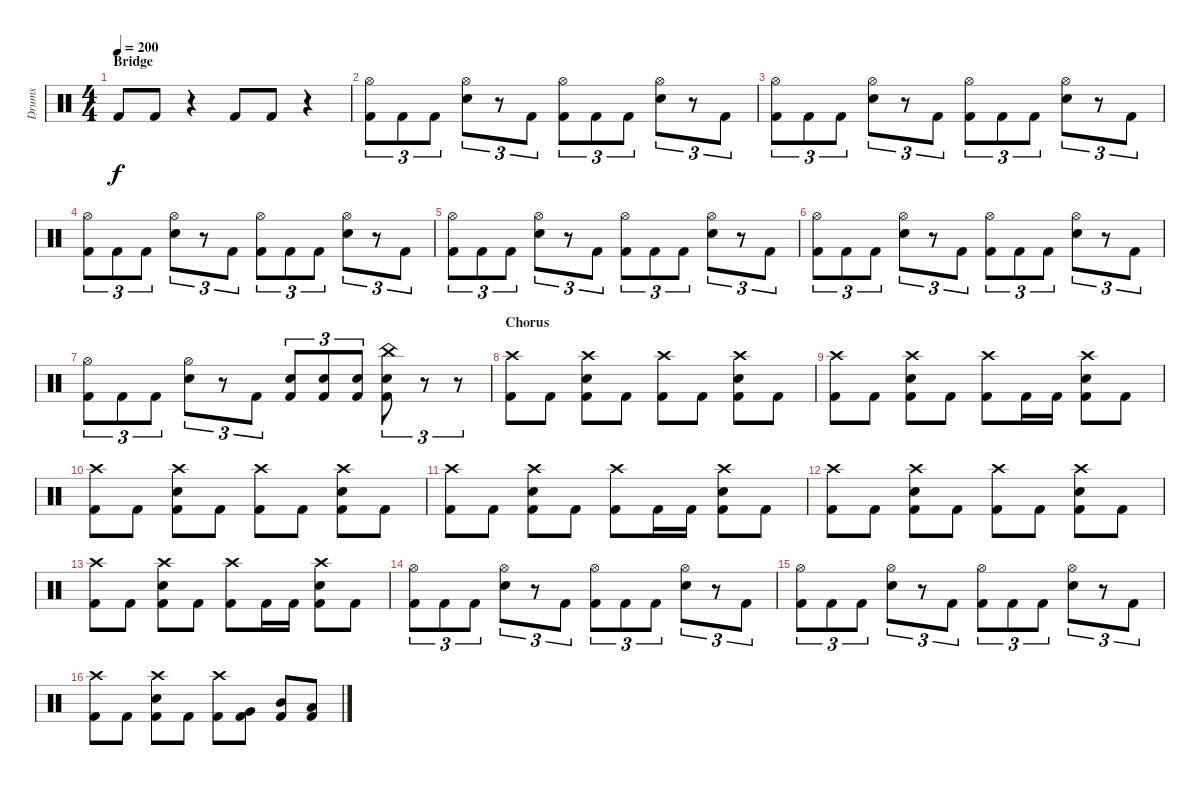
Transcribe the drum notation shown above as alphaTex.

\track ("Drums" "Drums") {instrument percussion}
\staff {score}
\articulation defaults
\ts (4 4)
\section ("" "Bridge")
\tempo 200
\clef neutral
\ks c "Kick (hit) 2".8{dy f} "Kick (hit) 2".8
r.4 "Kick (hit) 2".8 "Kick (hit) 2".8 r.4 |
("Hi-Hat (open)" "Kick (hit) 2").8{tu (3 2)} "Kick (hit) 2".8{tu (3 2)} "Kick (hit) 2".8{tu (3 2)} ("Hi-Hat (open)" "Electric Snare (hit)").8{tu (3 2)} r.8{tu (3 2)} "Kick (hit) 2".8{tu (3 2)} ("Hi-Hat (open)" "Kick (hit) 2").8{tu (3 2)} "Kick (hit) 2".8{tu (3 2)} "Kick (hit) 2".8{tu (3 2)} ("Hi-Hat (open)" "Electric Snare (hit)").8{tu (3 2)} r.8{tu (3 2)} "Kick (hit) 2".8{tu (3 2)} |
("Hi-Hat (open)" "Kick (hit) 2").8{tu (3 2)} "Kick (hit) 2".8{tu (3 2)} "Kick (hit) 2".8{tu (3 2)} ("Hi-Hat (open)" "Electric Snare (hit)").8{tu (3 2)} r.8{tu (3 2)} "Kick (hit) 2".8{tu (3 2)} ("Hi-Hat (open)" "Kick (hit) 2").8{tu (3 2)} "Kick (hit) 2".8{tu (3 2)} "Kick (hit) 2".8{tu (3 2)} ("Hi-Hat (open)" "Electric Snare (hit)").8{tu (3 2)} r.8{tu (3 2)} "Kick (hit) 2".8{tu (3 2)} |
("Hi-Hat (open)" "Kick (hit) 2").8{tu (3 2)} "Kick (hit) 2".8{tu (3 2)} "Kick (hit) 2".8{tu (3 2)} ("Hi-Hat (open)" "Electric Snare (hit)").8{tu (3 2)} r.8{tu (3 2)} "Kick (hit) 2".8{tu (3 2)} ("Hi-Hat (open)" "Kick (hit) 2").8{tu (3 2)} "Kick (hit) 2".8{tu (3 2)} "Kick (hit) 2".8{tu (3 2)} ("Hi-Hat (open)" "Electric Snare (hit)").8{tu (3 2)} r.8{tu (3 2)} "Kick (hit) 2".8{tu (3 2)} |
("Hi-Hat (open)" "Kick (hit) 2").8{tu (3 2)} "Kick (hit) 2".8{tu (3 2)} "Kick (hit) 2".8{tu (3 2)} ("Hi-Hat (open)" "Electric Snare (hit)").8{tu (3 2)} r.8{tu (3 2)} "Kick (hit) 2".8{tu (3 2)} ("Hi-Hat (open)" "Kick (hit) 2").8{tu (3 2)} "Kick (hit) 2".8{tu (3 2)} "Kick (hit) 2".8{tu (3 2)} ("Hi-Hat (open)" "Electric Snare (hit)").8{tu (3 2)} r.8{tu (3 2)} "Kick (hit) 2".8{tu (3 2)} |
("Hi-Hat (open)" "Kick (hit) 2").8{tu (3 2)} "Kick (hit) 2".8{tu (3 2)} "Kick (hit) 2".8{tu (3 2)} ("Hi-Hat (open)" "Electric Snare (hit)").8{tu (3 2)} r.8{tu (3 2)} "Kick (hit) 2".8{tu (3 2)} ("Hi-Hat (open)" "Kick (hit) 2").8{tu (3 2)} "Kick (hit) 2".8{tu (3 2)} "Kick (hit) 2".8{tu (3 2)} ("Hi-Hat (open)" "Electric Snare (hit)").8{tu (3 2)} r.8{tu (3 2)} "Kick (hit) 2".8{tu (3 2)} |
("Hi-Hat (open)" "Kick (hit) 2").8{tu (3 2)} "Kick (hit) 2".8{tu (3 2)} "Kick (hit) 2".8{tu (3 2)} ("Hi-Hat (open)" "Electric Snare (hit)").8{tu (3 2)} r.8{tu (3 2)} "Kick (hit) 2".8{tu (3 2)} ("Electric Snare (hit)" "Kick (hit) 2").8{tu (3 2)} ("Electric Snare (hit)" "Kick (hit) 2").8{tu (3 2)} ("Electric Snare (hit)" "Kick (hit) 2").8{tu (3 2)} ("China (hit)" "Electric Snare (hit)" "Kick (hit) 2").8{tu (3 2)} r.8{tu (3 2)} r.8{tu (3 2)} |
\section ("" "Chorus")
("Crash high (hit)" "Kick (hit) 2").8 "Kick (hit) 2".8 ("Crash high (hit)" "Electric Snare (hit)" "Kick (hit) 2").8 "Kick (hit) 2".8 ("Crash high (hit)" "Kick (hit) 2").8 "Kick (hit) 2".8 ("Crash high (hit)" "Electric Snare (hit)" "Kick (hit) 2").8 "Kick (hit) 2".8 |
("Crash high (hit)" "Kick (hit) 2").8 "Kick (hit) 2".8 ("Crash high (hit)" "Electric Snare (hit)" "Kick (hit) 2").8 "Kick (hit) 2".8 ("Crash high (hit)" "Kick (hit) 2").8 "Kick (hit) 2".16 "Kick (hit) 2".16 ("Crash high (hit)" "Electric Snare (hit)" "Kick (hit) 2").8 "Kick (hit) 2".8 |
("Crash high (hit)" "Kick (hit) 2").8 "Kick (hit) 2".8 ("Crash high (hit)" "Electric Snare (hit)" "Kick (hit) 2").8 "Kick (hit) 2".8 ("Crash high (hit)" "Kick (hit) 2").8 "Kick (hit) 2".8 ("Crash high (hit)" "Electric Snare (hit)" "Kick (hit) 2").8 "Kick (hit) 2".8 |
("Crash high (hit)" "Kick (hit) 2").8 "Kick (hit) 2".8 ("Crash high (hit)" "Electric Snare (hit)" "Kick (hit) 2").8 "Kick (hit) 2".8 ("Crash high (hit)" "Kick (hit) 2").8 "Kick (hit) 2".16 "Kick (hit) 2".16 ("Crash high (hit)" "Electric Snare (hit)" "Kick (hit) 2").8 "Kick (hit) 2".8 |
("Crash high (hit)" "Kick (hit) 2").8 "Kick (hit) 2".8 ("Crash high (hit)" "Electric Snare (hit)" "Kick (hit) 2").8 "Kick (hit) 2".8 ("Crash high (hit)" "Kick (hit) 2").8 "Kick (hit) 2".8 ("Crash high (hit)" "Electric Snare (hit)" "Kick (hit) 2").8 "Kick (hit) 2".8 |
("Crash high (hit)" "Kick (hit) 2").8 "Kick (hit) 2".8 ("Crash high (hit)" "Electric Snare (hit)" "Kick (hit) 2").8 "Kick (hit) 2".8 ("Crash high (hit)" "Kick (hit) 2").8 "Kick (hit) 2".16 "Kick (hit) 2".16 ("Crash high (hit)" "Electric Snare (hit)" "Kick (hit) 2").8 "Kick (hit) 2".8 |
("Hi-Hat (open)" "Kick (hit) 2").8{tu (3 2)} "Kick (hit) 2".8{tu (3 2)} "Kick (hit) 2".8{tu (3 2)} ("Hi-Hat (open)" "Electric Snare (hit)").8{tu (3 2)} r.8{tu (3 2)} "Kick (hit) 2".8{tu (3 2)} ("Hi-Hat (open)" "Kick (hit) 2").8{tu (3 2)} "Kick (hit) 2".8{tu (3 2)} "Kick (hit) 2".8{tu (3 2)} ("Hi-Hat (open)" "Electric Snare (hit)").8{tu (3 2)} r.8{tu (3 2)} "Kick (hit) 2".8{tu (3 2)} |
("Hi-Hat (open)" "Kick (hit) 2").8{tu (3 2)} "Kick (hit) 2".8{tu (3 2)} "Kick (hit) 2".8{tu (3 2)} ("Hi-Hat (open)" "Electric Snare (hit)").8{tu (3 2)} r.8{tu (3 2)} "Kick (hit) 2".8{tu (3 2)} ("Hi-Hat (open)" "Kick (hit) 2").8{tu (3 2)} "Kick (hit) 2".8{tu (3 2)} "Kick (hit) 2".8{tu (3 2)} ("Hi-Hat (open)" "Electric Snare (hit)").8{tu (3 2)} r.8{tu (3 2)} "Kick (hit) 2".8{tu (3 2)} |
("Crash high (hit)" "Kick (hit) 2").8 "Kick (hit) 2".8 ("Crash high (hit)" "Electric Snare (hit)" "Kick (hit) 2").8 "Kick (hit) 2".8 ("Crash high (hit)" "Kick (hit) 2").8 ("Very Low Tom (hit)" "Kick (hit) 2").8 ("Mid Tom (hit)" "Kick (hit) 2").8 ("Low Tom (hit)" "Kick (hit) 2").8
